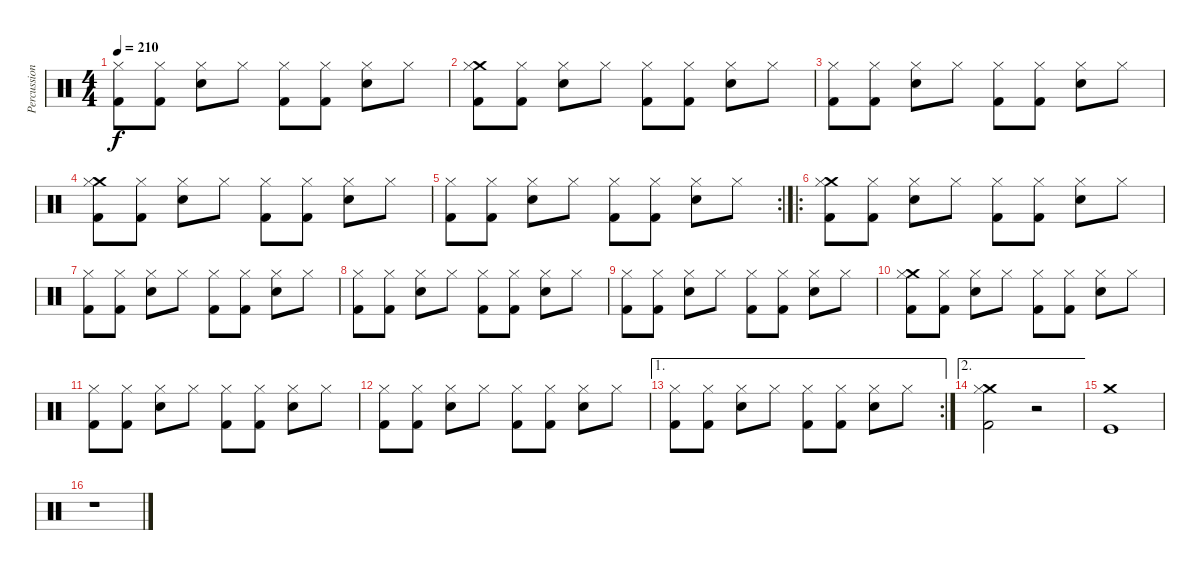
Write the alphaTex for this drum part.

\track ("Percussion" "Percussion") {instrument percussion}
\staff {score}
\articulation defaults
\ts (4 4)
\tempo 210
\clef neutral
\ks c
("Hi-Hat (closed)" "Kick (hit) 2").8{dy f} ("Hi-Hat (closed)" "Kick (hit) 2").8 ("Hi-Hat (closed)" "Electric Snare (hit)").8 "Hi-Hat (closed)".8 ("Hi-Hat (closed)" "Kick (hit) 2").8 ("Hi-Hat (closed)" "Kick (hit) 2").8 ("Hi-Hat (closed)" "Electric Snare (hit)").8 "Hi-Hat (closed)".8 |
("Crash medium (hit)" "Hi-Hat (closed)" "Kick (hit) 2").8 ("Hi-Hat (closed)" "Kick (hit) 2").8 ("Hi-Hat (closed)" "Electric Snare (hit)").8 "Hi-Hat (closed)".8 ("Hi-Hat (closed)" "Kick (hit) 2").8 ("Hi-Hat (closed)" "Kick (hit) 2").8 ("Hi-Hat (closed)" "Electric Snare (hit)").8 "Hi-Hat (closed)".8 |
("Hi-Hat (closed)" "Kick (hit) 2").8 ("Hi-Hat (closed)" "Kick (hit) 2").8 ("Hi-Hat (closed)" "Electric Snare (hit)").8 "Hi-Hat (closed)".8 ("Hi-Hat (closed)" "Kick (hit) 2").8 ("Hi-Hat (closed)" "Kick (hit) 2").8 ("Hi-Hat (closed)" "Electric Snare (hit)").8 "Hi-Hat (closed)".8 |
("Crash medium (hit)" "Hi-Hat (closed)" "Kick (hit) 2").8 ("Hi-Hat (closed)" "Kick (hit) 2").8 ("Hi-Hat (closed)" "Electric Snare (hit)").8 "Hi-Hat (closed)".8 ("Hi-Hat (closed)" "Kick (hit) 2").8 ("Hi-Hat (closed)" "Kick (hit) 2").8 ("Hi-Hat (closed)" "Electric Snare (hit)").8 "Hi-Hat (closed)".8 |
\rc 2
("Hi-Hat (closed)" "Kick (hit) 2").8 ("Hi-Hat (closed)" "Kick (hit) 2").8 ("Hi-Hat (closed)" "Electric Snare (hit)").8 "Hi-Hat (closed)".8 ("Hi-Hat (closed)" "Kick (hit) 2").8 ("Hi-Hat (closed)" "Kick (hit) 2").8 ("Hi-Hat (closed)" "Electric Snare (hit)").8 "Hi-Hat (closed)".8 |
\ro
("Crash medium (hit)" "Hi-Hat (closed)" "Kick (hit) 2").8 ("Hi-Hat (closed)" "Kick (hit) 2").8 ("Hi-Hat (closed)" "Electric Snare (hit)").8 "Hi-Hat (closed)".8 ("Hi-Hat (closed)" "Kick (hit) 2").8 ("Hi-Hat (closed)" "Kick (hit) 2").8 ("Hi-Hat (closed)" "Electric Snare (hit)").8 "Hi-Hat (closed)".8 |
("Hi-Hat (closed)" "Kick (hit) 2").8 ("Hi-Hat (closed)" "Kick (hit) 2").8 ("Hi-Hat (closed)" "Electric Snare (hit)").8 "Hi-Hat (closed)".8 ("Hi-Hat (closed)" "Kick (hit) 2").8 ("Hi-Hat (closed)" "Kick (hit) 2").8 ("Hi-Hat (closed)" "Electric Snare (hit)").8 "Hi-Hat (closed)".8 |
("Hi-Hat (closed)" "Kick (hit) 2").8 ("Hi-Hat (closed)" "Kick (hit) 2").8 ("Hi-Hat (closed)" "Electric Snare (hit)").8 "Hi-Hat (closed)".8 ("Hi-Hat (closed)" "Kick (hit) 2").8 ("Hi-Hat (closed)" "Kick (hit) 2").8 ("Hi-Hat (closed)" "Electric Snare (hit)").8 "Hi-Hat (closed)".8 |
("Hi-Hat (closed)" "Kick (hit) 2").8 ("Hi-Hat (closed)" "Kick (hit) 2").8 ("Hi-Hat (closed)" "Electric Snare (hit)").8 "Hi-Hat (closed)".8 ("Hi-Hat (closed)" "Kick (hit) 2").8 ("Hi-Hat (closed)" "Kick (hit) 2").8 ("Hi-Hat (closed)" "Electric Snare (hit)").8 "Hi-Hat (closed)".8 |
("Crash medium (hit)" "Hi-Hat (closed)" "Kick (hit) 2").8 ("Hi-Hat (closed)" "Kick (hit) 2").8 ("Hi-Hat (closed)" "Electric Snare (hit)").8 "Hi-Hat (closed)".8 ("Hi-Hat (closed)" "Kick (hit) 2").8 ("Hi-Hat (closed)" "Kick (hit) 2").8 ("Hi-Hat (closed)" "Electric Snare (hit)").8 "Hi-Hat (closed)".8 |
("Hi-Hat (closed)" "Kick (hit) 2").8 ("Hi-Hat (closed)" "Kick (hit) 2").8 ("Hi-Hat (closed)" "Electric Snare (hit)").8 "Hi-Hat (closed)".8 ("Hi-Hat (closed)" "Kick (hit) 2").8 ("Hi-Hat (closed)" "Kick (hit) 2").8 ("Hi-Hat (closed)" "Electric Snare (hit)").8 "Hi-Hat (closed)".8 |
("Hi-Hat (closed)" "Kick (hit) 2").8 ("Hi-Hat (closed)" "Kick (hit) 2").8 ("Hi-Hat (closed)" "Electric Snare (hit)").8 "Hi-Hat (closed)".8 ("Hi-Hat (closed)" "Kick (hit) 2").8 ("Hi-Hat (closed)" "Kick (hit) 2").8 ("Hi-Hat (closed)" "Electric Snare (hit)").8 "Hi-Hat (closed)".8 |
\ae 1
\rc 2
("Hi-Hat (closed)" "Kick (hit) 2").8 ("Hi-Hat (closed)" "Kick (hit) 2").8 ("Hi-Hat (closed)" "Electric Snare (hit)").8 "Hi-Hat (closed)".8 ("Hi-Hat (closed)" "Kick (hit) 2").8 ("Hi-Hat (closed)" "Kick (hit) 2").8 ("Hi-Hat (closed)" "Electric Snare (hit)").8 "Hi-Hat (closed)".8 |
\ae 2
("Crash medium (hit)" "Hi-Hat (closed)" "Kick (hit) 2").2 r.2 |
("Kick (hit)" "Crash medium (hit)").1 |
r.1
